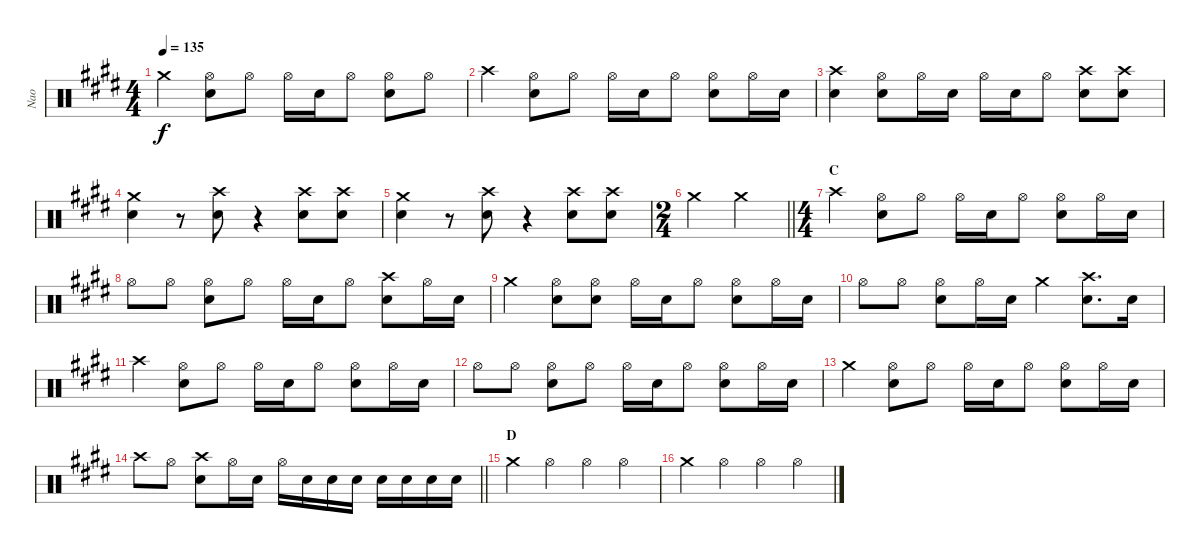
\track ("Nao" "Nao") {instrument percussion}
\staff {score}
\articulation defaults
\ts (4 4)
\tempo 135
\clef neutral
\ks e "Crash medium (hit)".4{dy f}
("Hi-Hat (open)" "Snare (hit) 2").8 "Hi-Hat (open)".8 "Hi-Hat (open)".16 "Snare (hit) 2".16 "Hi-Hat (open)".8 ("Hi-Hat (open)" "Snare (hit) 2").8 "Hi-Hat (open)".8 |
"Crash high (hit)".4 ("Hi-Hat (open)" "Snare (hit) 2").8 "Hi-Hat (open)".8 "Hi-Hat (open)".16 "Snare (hit) 2".16 "Hi-Hat (open)".8 ("Hi-Hat (open)" "Snare (hit) 2").8 "Hi-Hat (open)".16 "Snare (hit) 2".16 |
("Crash high (hit)" "Snare (hit) 2").4 ("Hi-Hat (open)" "Snare (hit) 2").8 "Hi-Hat (open)".16 "Snare (hit) 2".16 "Hi-Hat (open)".16 "Snare (hit) 2".16 "Hi-Hat (open)".8 ("Crash high (hit)" "Snare (hit) 2").8 ("Crash high (hit)" "Snare (hit) 2").8 |
("Crash medium (hit)" "Snare (hit) 2").4 r.8 ("Crash high (hit)" "Snare (hit) 2").8 r.4 ("Crash high (hit)" "Snare (hit) 2").8 ("Crash high (hit)" "Snare (hit) 2").8 |
("Crash medium (hit)" "Snare (hit) 2").4 r.8 ("Crash high (hit)" "Snare (hit) 2").8 r.4 ("Crash high (hit)" "Snare (hit) 2").8 ("Crash high (hit)" "Snare (hit) 2").8 |
\ts (2 4)
\barLineRight lightlight "Crash medium (hit)".4 "Crash medium (hit)".4
|
\ts (4 4)
\section ("" "C")
"Crash high (hit)".4 ("Hi-Hat (open)" "Snare (hit) 2").8 "Hi-Hat (open)".8 "Hi-Hat (open)".16 "Snare (hit) 2".16 "Hi-Hat (open)".8 ("Hi-Hat (open)" "Snare (hit) 2").8 "Hi-Hat (open)".16 "Snare (hit) 2".16 |
"Hi-Hat (open)".8 "Hi-Hat (open)".8 ("Hi-Hat (open)" "Snare (hit) 2").8 "Hi-Hat (open)".8 "Hi-Hat (open)".16 "Snare (hit) 2".16 "Hi-Hat (open)".8 ("Crash high (hit)" "Snare (hit) 2").8 "Hi-Hat (open)".16 "Snare (hit) 2".16 |
"Crash medium (hit)".4 ("Hi-Hat (open)" "Snare (hit) 2").8 ("Hi-Hat (open)" "Snare (hit) 2").8 "Hi-Hat (open)".16 "Snare (hit) 2".16 "Hi-Hat (open)".8 ("Hi-Hat (open)" "Snare (hit) 2").8 "Hi-Hat (open)".16 "Snare (hit) 2".16 |
"Hi-Hat (open)".8 "Hi-Hat (open)".8 ("Hi-Hat (open)" "Snare (hit) 2").8 "Hi-Hat (open)".16 "Snare (hit) 2".16 "Crash medium (hit)".4 ("Crash high (hit)" "Snare (hit) 2").8{d} "Snare (hit) 2".16 |
"Crash high (hit)".4 ("Hi-Hat (open)" "Snare (hit) 2").8 "Hi-Hat (open)".8 "Hi-Hat (open)".16 "Snare (hit) 2".16 "Hi-Hat (open)".8 ("Hi-Hat (open)" "Snare (hit) 2").8 "Hi-Hat (open)".16 "Snare (hit) 2".16 |
"Hi-Hat (open)".8 "Hi-Hat (open)".8 ("Hi-Hat (open)" "Snare (hit) 2").8 "Hi-Hat (open)".8 "Hi-Hat (open)".16 "Snare (hit) 2".16 "Hi-Hat (open)".8 ("Hi-Hat (open)" "Snare (hit) 2").8 "Hi-Hat (open)".16 "Snare (hit) 2".16 |
"Crash medium (hit)".4 ("Hi-Hat (open)" "Snare (hit) 2").8 "Hi-Hat (open)".8 "Hi-Hat (open)".16 "Snare (hit) 2".16 "Hi-Hat (open)".8 ("Hi-Hat (open)" "Snare (hit) 2").8 "Hi-Hat (open)".16 "Snare (hit) 2".16 |
\barLineRight lightlight "Crash high (hit)".8 "Hi-Hat (open)".8
("Crash high (hit)" "Snare (hit) 2").8 "Hi-Hat (open)".16 "Snare (hit) 2".16 "Hi-Hat (open)".16 "Snare (hit) 2".16 "Snare (hit) 2".16 "Snare (hit) 2".16 "Snare (hit) 2".16 "Snare (hit) 2".16 "Snare (hit) 2".16 "Snare (hit) 2".16 |
\section ("" "D")
"Crash medium (hit)".4 "Hi-Hat (open)".4 "Hi-Hat (open)".4 "Hi-Hat (open)".4 |
"Crash medium (hit)".4 "Hi-Hat (open)".4 "Hi-Hat (open)".4 "Hi-Hat (open)".4
